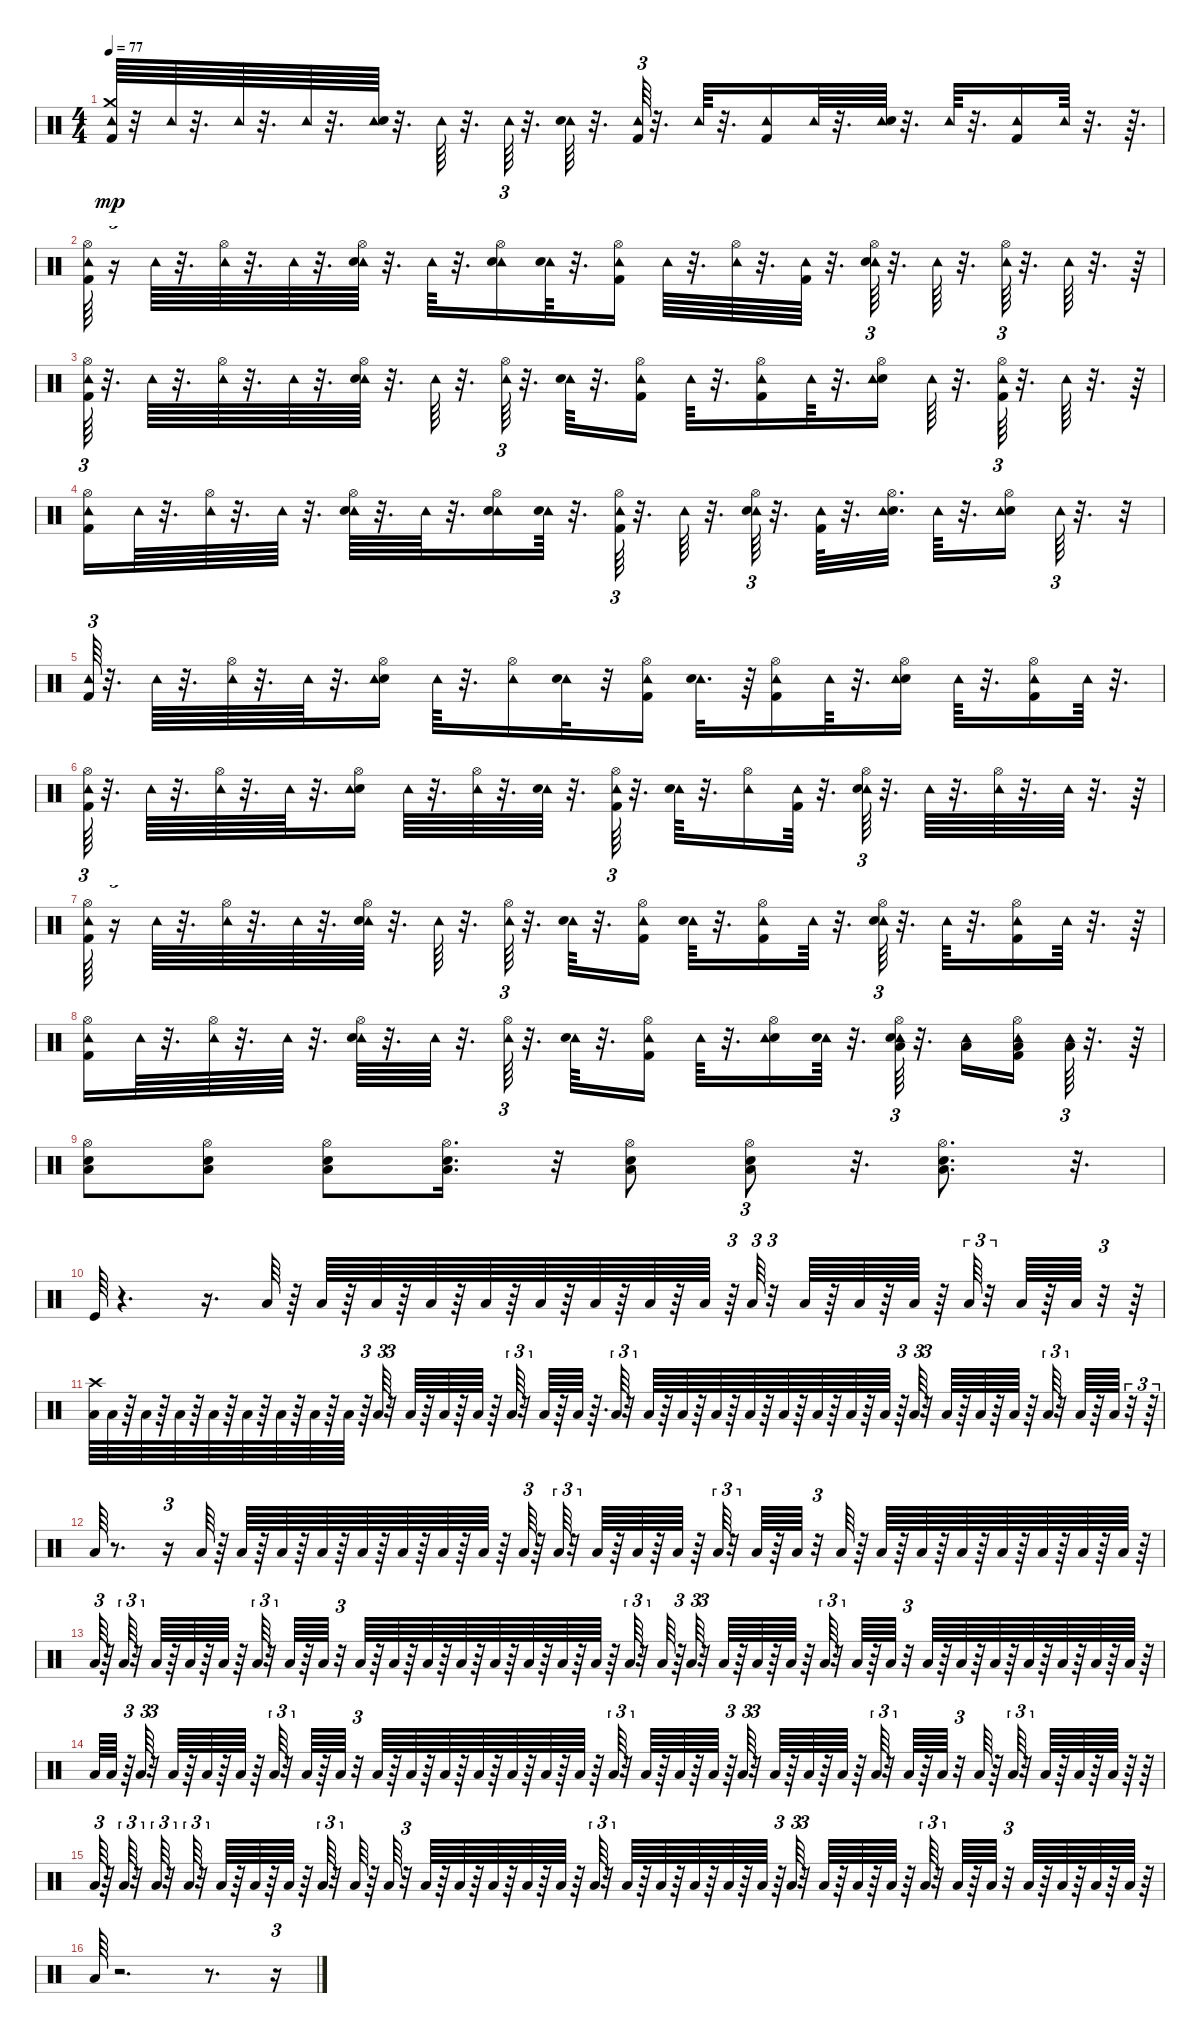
\track "" {instrument percussion}
\staff {score}
\articulation defaults
\ts (4 4)
\tempo 77
\clef neutral
\ks c
("Tambourine (hit)" "Crash medium (hit)" "Kick (hit) 2").64{dy mp} r.32 "Tambourine (hit)".64 r.32{d} "Tambourine (hit)".64 r.32{d} "Tambourine (hit)".64 r.32{d} ("Tambourine (hit)" "Electric Snare (hit)").64 r.32{d} "Tambourine (hit)".64 r.32{d} "Tambourine (hit)".64{tu (3 2)} r.32{d} ("Tambourine (hit)" "Electric Snare (hit)").64 r.32{d} ("Tambourine (hit)" "Kick (hit) 2").64{tu (3 2)} r.32{d} "Tambourine (hit)".64 r.32{d} ("Kick (hit) 2" "Tambourine (hit)").16 "Tambourine (hit)".64 r.32{d} ("Tambourine (hit)" "Electric Snare (hit)").64 r.32{d} "Tambourine (hit)".64 r.32{d} ("Kick (hit) 2" "Tambourine (hit)").16 "Tambourine (hit)".64 r.32{d} r.64{d} |
("Hi-Hat (open)" "Tambourine (hit)" "Kick (hit) 2").64 r.16{tu (3 2)} "Tambourine (hit)".64 r.32{d} ("Hi-Hat (open)" "Tambourine (hit)").64 r.32{d} "Tambourine (hit)".64 r.32{d} ("Hi-Hat (open)" "Tambourine (hit)" "Electric Snare (hit)").64 r.32{d} "Tambourine (hit)".64 r.32{d} ("Tambourine (hit)" "Hi-Hat (open)" "Electric Snare (hit)").16 ("Tambourine (hit)" "Electric Snare (hit)").64 r.32{d} ("Kick (hit) 2" "Tambourine (hit)" "Hi-Hat (open)").16 "Tambourine (hit)".64 r.32{d} ("Hi-Hat (open)" "Tambourine (hit)").64 r.32{d} ("Tambourine (hit)" "Kick (hit) 2").64 r.32{d} ("Hi-Hat (open)" "Tambourine (hit)" "Electric Snare (hit)").64{tu (3 2)} r.32{d} "Tambourine (hit)".64 r.32{d} ("Hi-Hat (open)" "Tambourine (hit)").64{tu (3 2)} r.32{d} "Tambourine (hit)".64 r.32{d} r.64 |
("Hi-Hat (open)" "Tambourine (hit)" "Kick (hit) 2").64{tu (3 2)} r.32{d} "Tambourine (hit)".64 r.32{d} ("Hi-Hat (open)" "Tambourine (hit)").64 r.32{d} "Tambourine (hit)".64 r.32{d} ("Hi-Hat (open)" "Tambourine (hit)" "Electric Snare (hit)").64 r.32{d} "Tambourine (hit)".64 r.32{d} ("Hi-Hat (open)" "Tambourine (hit)").64{tu (3 2)} r.32{d} ("Tambourine (hit)" "Electric Snare (hit)").64 r.32{d} ("Kick (hit) 2" "Tambourine (hit)" "Hi-Hat (open)").16 "Tambourine (hit)".64 r.32{d} ("Kick (hit) 2" "Tambourine (hit)" "Hi-Hat (open)").16 "Tambourine (hit)".64 r.32{d} ("Electric Snare (hit)" "Tambourine (hit)" "Hi-Hat (open)").16 "Tambourine (hit)".64 r.32{d} ("Hi-Hat (open)" "Tambourine (hit)" "Kick (hit) 2").64{tu (3 2)} r.32{d} "Tambourine (hit)".64 r.32{d} r.64 |
("Kick (hit) 2" "Tambourine (hit)" "Hi-Hat (open)").16 "Tambourine (hit)".64 r.32{d} ("Hi-Hat (open)" "Tambourine (hit)").64 r.32{d} "Tambourine (hit)".64 r.32{d} ("Hi-Hat (open)" "Tambourine (hit)" "Electric Snare (hit)").64 r.32{d} "Tambourine (hit)".64 r.32{d} ("Tambourine (hit)" "Hi-Hat (open)" "Electric Snare (hit)").16 ("Tambourine (hit)" "Electric Snare (hit)").64 r.32{d} ("Hi-Hat (open)" "Tambourine (hit)" "Kick (hit) 2").64{tu (3 2)} r.32{d} "Tambourine (hit)".64 r.32{d} ("Hi-Hat (open)" "Tambourine (hit)" "Electric Snare (hit)").64{tu (3 2)} r.32{d} ("Tambourine (hit)" "Kick (hit) 2").64 r.32{d} ("Electric Snare (hit)" "Tambourine (hit)" "Hi-Hat (open)").32{d} "Tambourine (hit)".64 r.32{d} ("Electric Snare (hit)" "Tambourine (hit)" "Hi-Hat (open)").16 "Tambourine (hit)".64{tu (3 2)} r.32{d} r.32 |
("Tambourine (hit)" "Kick (hit) 2").64{tu (3 2)} r.32{d} "Tambourine (hit)".64 r.32{d} ("Hi-Hat (open)" "Tambourine (hit)").64 r.32{d} "Tambourine (hit)".64 r.32{d} ("Electric Snare (hit)" "Tambourine (hit)" "Hi-Hat (open)").16 "Tambourine (hit)".64 r.32{d} ("Tambourine (hit)" "Hi-Hat (open)").16 ("Tambourine (hit)" "Electric Snare (hit)").32 r.32 ("Kick (hit) 2" "Tambourine (hit)" "Hi-Hat (open)").16 ("Tambourine (hit)" "Electric Snare (hit)").32{d} r.64 ("Kick (hit) 2" "Tambourine (hit)" "Hi-Hat (open)").16 "Tambourine (hit)".64 r.32{d} ("Electric Snare (hit)" "Tambourine (hit)" "Hi-Hat (open)").16 "Tambourine (hit)".64 r.32{d} ("Kick (hit) 2" "Tambourine (hit)" "Hi-Hat (open)").16 "Tambourine (hit)".64 r.32{d} |
("Hi-Hat (open)" "Tambourine (hit)" "Kick (hit) 2").64{tu (3 2)} r.32{d} "Tambourine (hit)".64 r.32{d} ("Hi-Hat (open)" "Tambourine (hit)").64 r.32{d} "Tambourine (hit)".64 r.32{d} ("Electric Snare (hit)" "Tambourine (hit)" "Hi-Hat (open)").16 "Tambourine (hit)".64 r.32{d} ("Hi-Hat (open)" "Tambourine (hit)").64 r.32{d} ("Tambourine (hit)" "Electric Snare (hit)").64 r.32{d} ("Hi-Hat (open)" "Tambourine (hit)" "Kick (hit) 2").64{tu (3 2)} r.32{d} ("Tambourine (hit)" "Electric Snare (hit)").64 r.32{d} ("Tambourine (hit)" "Hi-Hat (open)").16 ("Tambourine (hit)" "Kick (hit) 2").64 r.32{d} ("Hi-Hat (open)" "Tambourine (hit)" "Electric Snare (hit)").64{tu (3 2)} r.32{d} "Tambourine (hit)".64 r.32{d} ("Hi-Hat (open)" "Tambourine (hit)").64 r.32{d} "Tambourine (hit)".64 r.32{d} r.64 |
("Hi-Hat (open)" "Tambourine (hit)" "Kick (hit) 2").64 r.16{tu (3 2)} "Tambourine (hit)".64 r.32{d} ("Hi-Hat (open)" "Tambourine (hit)").64 r.32{d} "Tambourine (hit)".64 r.32{d} ("Hi-Hat (open)" "Tambourine (hit)" "Electric Snare (hit)").64 r.32{d} "Tambourine (hit)".64 r.32{d} ("Hi-Hat (open)" "Tambourine (hit)").64{tu (3 2)} r.32{d} ("Tambourine (hit)" "Electric Snare (hit)").64 r.32{d} ("Kick (hit) 2" "Tambourine (hit)" "Hi-Hat (open)").16 ("Tambourine (hit)" "Electric Snare (hit)").64 r.32{d} ("Kick (hit) 2" "Tambourine (hit)" "Hi-Hat (open)").16 "Tambourine (hit)".64 r.32{d} ("Hi-Hat (open)" "Tambourine (hit)" "Electric Snare (hit)").64{tu (3 2)} r.32{d} "Tambourine (hit)".64 r.32{d} ("Kick (hit) 2" "Tambourine (hit)" "Hi-Hat (open)").16 "Tambourine (hit)".64 r.32{d} r.64 |
("Kick (hit) 2" "Tambourine (hit)" "Hi-Hat (open)").16 "Tambourine (hit)".64 r.32{d} ("Hi-Hat (open)" "Tambourine (hit)").64 r.32{d} "Tambourine (hit)".64 r.32{d} ("Hi-Hat (open)" "Tambourine (hit)" "Electric Snare (hit)").64 r.32{d} "Tambourine (hit)".64 r.32{d} ("Hi-Hat (open)" "Tambourine (hit)").64{tu (3 2)} r.32{d} ("Tambourine (hit)" "Electric Snare (hit)").64 r.32{d} ("Kick (hit) 2" "Tambourine (hit)" "Hi-Hat (open)").16 "Tambourine (hit)".64 r.32{d} ("Electric Snare (hit)" "Tambourine (hit)" "Hi-Hat (open)").16 ("Tambourine (hit)" "Electric Snare (hit)").64 r.32{d} ("Hi-Hat (open)" "Tambourine (hit)" "Electric Snare (hit)" "Low Floor Tom (hit)").64{tu (3 2)} r.32{d} ("Low Floor Tom (hit)" "Tambourine (hit)").16 ("Low Floor Tom (hit)" "Kick (hit) 2" "Tambourine (hit)" "Hi-Hat (open)").16 ("Tambourine (hit)" "Low Floor Tom (hit)").64{tu (3 2)} r.32{d} r.64 |
("Low Floor Tom (hit)" "Electric Snare (hit)" "Hi-Hat (open)").8 ("Low Floor Tom (hit)" "Electric Snare (hit)" "Hi-Hat (open)").8 ("Low Floor Tom (hit)" "Hi-Hat (open)" "Electric Snare (hit)").8 ("Hi-Hat (open)" "Low Floor Tom (hit)" "Electric Snare (hit)").16{d} r.32 ("Low Floor Tom (hit)" "Hi-Hat (open)" "Electric Snare (hit)").8 ("Hi-Hat (open)" "Low Floor Tom (hit)" "Electric Snare (hit)").8{tu (3 2)} r.32{d} ("Low Floor Tom (hit)" "Electric Snare (hit)" "Hi-Hat (open)").8{d} r.32{d} |
"Kick (hit)".64 r.4{d} r.16{d} "Low Floor Tom (hit)".64 r.64 "Low Floor Tom (hit)".64 r.64 "Low Floor Tom (hit)".64 r.64 "Low Floor Tom (hit)".64 r.64 "Low Floor Tom (hit)".64 r.64 "Low Floor Tom (hit)".64 r.64 "Low Floor Tom (hit)".64 r.64 "Low Floor Tom (hit)".64 r.64 "Low Floor Tom (hit)".64 r.64{tu (3 2)} "Low Floor Tom (hit)".64{tu (3 2)} r.32{tu (3 2)} "Low Floor Tom (hit)".64 r.64 "Low Floor Tom (hit)".64 r.64 "Low Floor Tom (hit)".64 r.64 "Low Floor Tom (hit)".64{tu (3 2)} r.32{tu (3 2)} "Low Floor Tom (hit)".64 r.64 "Low Floor Tom (hit)".64 r.32{tu (3 2)} r.64 |
("Crash high (hit)" "Low Floor Tom (hit)").64 "Low Floor Tom (hit)".64 r.64 "Low Floor Tom (hit)".64 r.64 "Low Floor Tom (hit)".64 r.64 "Low Floor Tom (hit)".64 r.64 "Low Floor Tom (hit)".64 r.64 "Low Floor Tom (hit)".64 r.64 "Low Floor Tom (hit)".64 r.64 "Low Floor Tom (hit)".64 r.64{tu (3 2)} "Low Floor Tom (hit)".64{tu (3 2)} r.32{tu (3 2)} "Low Floor Tom (hit)".64 r.64 "Low Floor Tom (hit)".64 r.64 "Low Floor Tom (hit)".64 r.64 "Low Floor Tom (hit)".64{tu (3 2)} r.32{tu (3 2)} "Low Floor Tom (hit)".64 r.64 "Low Floor Tom (hit)".64 r.64{d} "Low Floor Tom (hit)".64{tu (3 2)} r.32{tu (3 2)} "Low Floor Tom (hit)".64 r.64 "Low Floor Tom (hit)".64 r.64 "Low Floor Tom (hit)".64 r.64 "Low Floor Tom (hit)".64 r.64 "Low Floor Tom (hit)".64 r.64 "Low Floor Tom (hit)".64 r.64 "Low Floor Tom (hit)".64 r.64 "Low Floor Tom (hit)".64 r.64{tu (3 2)} "Low Floor Tom (hit)".64{tu (3 2)} r.32{tu (3 2)} "Low Floor Tom (hit)".64 r.64 "Low Floor Tom (hit)".64 r.64 "Low Floor Tom (hit)".64 r.64 "Low Floor Tom (hit)".64{tu (3 2)} r.32{tu (3 2)} "Low Floor Tom (hit)".64 r.64 "Low Floor Tom (hit)".64 r.32{tu (3 2)} r.64{tu (3 2)} |
"Low Floor Tom (hit)".64 r.8{d} r.16{tu (3 2)} "Low Floor Tom (hit)".64 r.64 "Low Floor Tom (hit)".64 r.64 "Low Floor Tom (hit)".64 r.64 "Low Floor Tom (hit)".64 r.64 "Low Floor Tom (hit)".64 r.64 "Low Floor Tom (hit)".64 r.64 "Low Floor Tom (hit)".64 r.64 "Low Floor Tom (hit)".64 r.64 "Low Floor Tom (hit)".64{tu (3 2)} r.64 "Low Floor Tom (hit)".64{tu (3 2)} r.32{tu (3 2)} "Low Floor Tom (hit)".64 r.64 "Low Floor Tom (hit)".64 r.64 "Low Floor Tom (hit)".64 r.64 "Low Floor Tom (hit)".64{tu (3 2)} r.32{tu (3 2)} "Low Floor Tom (hit)".64 r.64 "Low Floor Tom (hit)".64 r.32{tu (3 2)} "Low Floor Tom (hit)".64 r.64 "Low Floor Tom (hit)".64 r.64 "Low Floor Tom (hit)".64 r.64 "Low Floor Tom (hit)".64 r.64 "Low Floor Tom (hit)".64 r.64 "Low Floor Tom (hit)".64 r.64 "Low Floor Tom (hit)".64 r.64 "Low Floor Tom (hit)".64 r.64 |
"Low Floor Tom (hit)".64{tu (3 2)} r.64 "Low Floor Tom (hit)".64{tu (3 2)} r.32{tu (3 2)} "Low Floor Tom (hit)".64 r.64 "Low Floor Tom (hit)".64 r.64 "Low Floor Tom (hit)".64 r.64 "Low Floor Tom (hit)".64{tu (3 2)} r.32{tu (3 2)} "Low Floor Tom (hit)".64 r.64 "Low Floor Tom (hit)".64 r.32{tu (3 2)} "Low Floor Tom (hit)".64 r.64 "Low Floor Tom (hit)".64 r.64 "Low Floor Tom (hit)".64 r.64 "Low Floor Tom (hit)".64 r.64 "Low Floor Tom (hit)".64 r.64 "Low Floor Tom (hit)".64 r.64 "Low Floor Tom (hit)".64 r.64 "Low Floor Tom (hit)".64 r.64 "Low Floor Tom (hit)".64{tu (3 2)} r.32{tu (3 2)} "Low Floor Tom (hit)".64 r.64{tu (3 2)} "Low Floor Tom (hit)".64{tu (3 2)} r.32{tu (3 2)} "Low Floor Tom (hit)".64 r.64 "Low Floor Tom (hit)".64 r.64 "Low Floor Tom (hit)".64 r.64 "Low Floor Tom (hit)".64{tu (3 2)} r.32{tu (3 2)} "Low Floor Tom (hit)".64 r.64 "Low Floor Tom (hit)".64 r.32{tu (3 2)} "Low Floor Tom (hit)".64 r.64 "Low Floor Tom (hit)".64 r.64 "Low Floor Tom (hit)".64 r.64 "Low Floor Tom (hit)".64 r.64 "Low Floor Tom (hit)".64 r.64 "Low Floor Tom (hit)".64 r.64 "Low Floor Tom (hit)".64 r.64 |
"Low Floor Tom (hit)".64 "Low Floor Tom (hit)".64 r.64{tu (3 2)} "Low Floor Tom (hit)".64{tu (3 2)} r.32{tu (3 2)} "Low Floor Tom (hit)".64 r.64 "Low Floor Tom (hit)".64 r.64 "Low Floor Tom (hit)".64 r.64 "Low Floor Tom (hit)".64{tu (3 2)} r.32{tu (3 2)} "Low Floor Tom (hit)".64 r.64 "Low Floor Tom (hit)".64 r.32{tu (3 2)} "Low Floor Tom (hit)".64 r.64 "Low Floor Tom (hit)".64 r.64 "Low Floor Tom (hit)".64 r.64 "Low Floor Tom (hit)".64 r.64 "Low Floor Tom (hit)".64 r.64 "Low Floor Tom (hit)".64 r.64 "Low Floor Tom (hit)".64 r.64 "Low Floor Tom (hit)".64{tu (3 2)} r.32{tu (3 2)} "Low Floor Tom (hit)".64 r.64 "Low Floor Tom (hit)".64 r.64 "Low Floor Tom (hit)".64 r.64{tu (3 2)} "Low Floor Tom (hit)".64{tu (3 2)} r.32{tu (3 2)} "Low Floor Tom (hit)".64 r.64 "Low Floor Tom (hit)".64 r.64 "Low Floor Tom (hit)".64 r.64 "Low Floor Tom (hit)".64{tu (3 2)} r.32{tu (3 2)} "Low Floor Tom (hit)".64 r.64 "Low Floor Tom (hit)".64 r.32{tu (3 2)} "Low Floor Tom (hit)".64 r.64 "Low Floor Tom (hit)".64{tu (3 2)} r.32{tu (3 2)} "Low Floor Tom (hit)".64 r.64 "Low Floor Tom (hit)".64 r.64 "Low Floor Tom (hit)".64 r.64 r.64 |
"Low Floor Tom (hit)".64{tu (3 2)} r.64 "Low Floor Tom (hit)".64{tu (3 2)} r.32{tu (3 2)} "Low Floor Tom (hit)".64{tu (3 2)} r.32{tu (3 2)} "Low Floor Tom (hit)".64{tu (3 2)} r.32{tu (3 2)} "Low Floor Tom (hit)".64 r.64 "Low Floor Tom (hit)".64 r.64 "Low Floor Tom (hit)".64 r.64 "Low Floor Tom (hit)".64{tu (3 2)} r.32{tu (3 2)} "Low Floor Tom (hit)".64 r.64 "Low Floor Tom (hit)".64 r.32{tu (3 2)} "Low Floor Tom (hit)".64 r.64 "Low Floor Tom (hit)".64 r.64 "Low Floor Tom (hit)".64 r.64 "Low Floor Tom (hit)".64 r.64 "Low Floor Tom (hit)".64 r.64 "Low Floor Tom (hit)".64{tu (3 2)} r.32{tu (3 2)} "Low Floor Tom (hit)".64 r.64 "Low Floor Tom (hit)".64 r.64 "Low Floor Tom (hit)".64 r.64 "Low Floor Tom (hit)".64 r.64 "Low Floor Tom (hit)".64 r.64{tu (3 2)} "Low Floor Tom (hit)".64{tu (3 2)} r.32{tu (3 2)} "Low Floor Tom (hit)".64 r.64 "Low Floor Tom (hit)".64 r.64 "Low Floor Tom (hit)".64 r.64 "Low Floor Tom (hit)".64{tu (3 2)} r.32{tu (3 2)} "Low Floor Tom (hit)".64 r.64 "Low Floor Tom (hit)".64 r.32{tu (3 2)} "Low Floor Tom (hit)".64 r.64 "Low Floor Tom (hit)".64 r.64 "Low Floor Tom (hit)".64 r.64 "Low Floor Tom (hit)".64 r.64 |
"Low Floor Tom (hit)".64 r.2{d} r.8{d} r.16{tu (3 2)}
